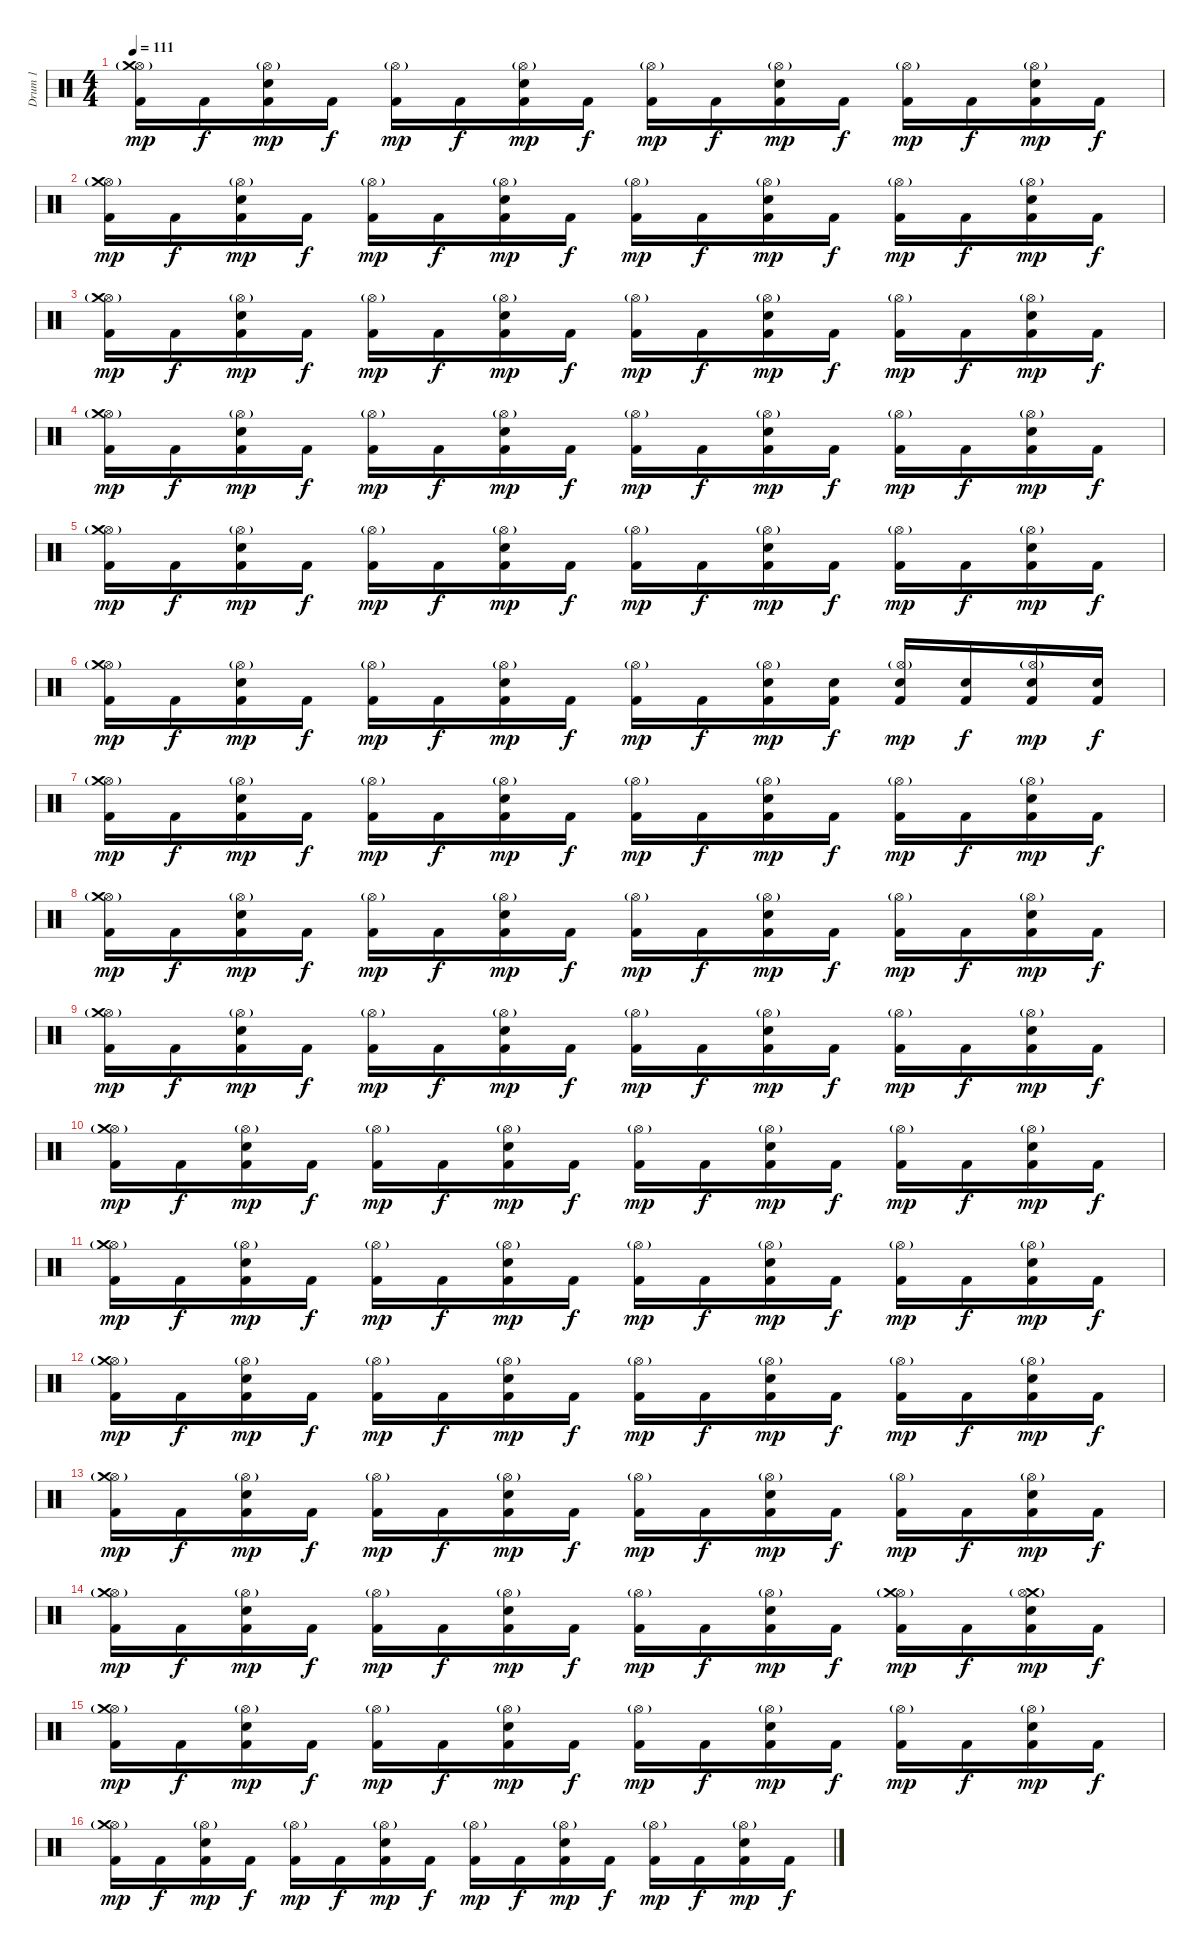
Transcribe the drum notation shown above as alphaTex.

\track ("Drum 1" "Drum 1") {instrument percussion}
\staff {score}
\articulation defaults
\ts (4 4)
\tempo 111
\clef neutral
\ks c
("Kick (hit) 2" "Hi-Hat (open)"{g} "Crash medium (hit)").16{dy mp} "Kick (hit) 2".16{dy f} ("Kick (hit) 2" "Hi-Hat (open)"{g} "Electric Snare (hit)").16{dy mp} "Kick (hit) 2".16{dy f} ("Kick (hit) 2" "Hi-Hat (open)"{g}).16{dy mp} "Kick (hit) 2".16{dy f} ("Kick (hit) 2" "Hi-Hat (open)"{g} "Electric Snare (hit)").16{dy mp} "Kick (hit) 2".16{dy f} ("Kick (hit) 2" "Hi-Hat (open)"{g}).16{dy mp} "Kick (hit) 2".16{dy f} ("Kick (hit) 2" "Hi-Hat (open)"{g} "Electric Snare (hit)").16{dy mp} "Kick (hit) 2".16{dy f} ("Kick (hit) 2" "Hi-Hat (open)"{g}).16{dy mp} "Kick (hit) 2".16{dy f} ("Kick (hit) 2" "Hi-Hat (open)"{g} "Electric Snare (hit)").16{dy mp} "Kick (hit) 2".16{dy f} |
("Kick (hit) 2" "Hi-Hat (open)"{g} "Crash medium (hit)").16{dy mp} "Kick (hit) 2".16{dy f} ("Kick (hit) 2" "Hi-Hat (open)"{g} "Electric Snare (hit)").16{dy mp} "Kick (hit) 2".16{dy f} ("Kick (hit) 2" "Hi-Hat (open)"{g}).16{dy mp} "Kick (hit) 2".16{dy f} ("Kick (hit) 2" "Hi-Hat (open)"{g} "Electric Snare (hit)").16{dy mp} "Kick (hit) 2".16{dy f} ("Kick (hit) 2" "Hi-Hat (open)"{g}).16{dy mp} "Kick (hit) 2".16{dy f} ("Kick (hit) 2" "Hi-Hat (open)"{g} "Electric Snare (hit)").16{dy mp} "Kick (hit) 2".16{dy f} ("Kick (hit) 2" "Hi-Hat (open)"{g}).16{dy mp} "Kick (hit) 2".16{dy f} ("Kick (hit) 2" "Hi-Hat (open)"{g} "Electric Snare (hit)").16{dy mp} "Kick (hit) 2".16{dy f} |
("Kick (hit) 2" "Hi-Hat (open)"{g} "Crash medium (hit)").16{dy mp} "Kick (hit) 2".16{dy f} ("Kick (hit) 2" "Hi-Hat (open)"{g} "Electric Snare (hit)").16{dy mp} "Kick (hit) 2".16{dy f} ("Kick (hit) 2" "Hi-Hat (open)"{g}).16{dy mp} "Kick (hit) 2".16{dy f} ("Kick (hit) 2" "Hi-Hat (open)"{g} "Electric Snare (hit)").16{dy mp} "Kick (hit) 2".16{dy f} ("Kick (hit) 2" "Hi-Hat (open)"{g}).16{dy mp} "Kick (hit) 2".16{dy f} ("Kick (hit) 2" "Hi-Hat (open)"{g} "Electric Snare (hit)").16{dy mp} "Kick (hit) 2".16{dy f} ("Kick (hit) 2" "Hi-Hat (open)"{g}).16{dy mp} "Kick (hit) 2".16{dy f} ("Kick (hit) 2" "Hi-Hat (open)"{g} "Electric Snare (hit)").16{dy mp} "Kick (hit) 2".16{dy f} |
("Kick (hit) 2" "Hi-Hat (open)"{g} "Crash medium (hit)").16{dy mp} "Kick (hit) 2".16{dy f} ("Kick (hit) 2" "Hi-Hat (open)"{g} "Electric Snare (hit)").16{dy mp} "Kick (hit) 2".16{dy f} ("Kick (hit) 2" "Hi-Hat (open)"{g}).16{dy mp} "Kick (hit) 2".16{dy f} ("Kick (hit) 2" "Hi-Hat (open)"{g} "Electric Snare (hit)").16{dy mp} "Kick (hit) 2".16{dy f} ("Kick (hit) 2" "Hi-Hat (open)"{g}).16{dy mp} "Kick (hit) 2".16{dy f} ("Kick (hit) 2" "Hi-Hat (open)"{g} "Electric Snare (hit)").16{dy mp} "Kick (hit) 2".16{dy f} ("Kick (hit) 2" "Hi-Hat (open)"{g}).16{dy mp} "Kick (hit) 2".16{dy f} ("Kick (hit) 2" "Hi-Hat (open)"{g} "Electric Snare (hit)").16{dy mp} "Kick (hit) 2".16{dy f} |
("Kick (hit) 2" "Hi-Hat (open)"{g} "Crash medium (hit)").16{dy mp} "Kick (hit) 2".16{dy f} ("Kick (hit) 2" "Hi-Hat (open)"{g} "Electric Snare (hit)").16{dy mp} "Kick (hit) 2".16{dy f} ("Kick (hit) 2" "Hi-Hat (open)"{g}).16{dy mp} "Kick (hit) 2".16{dy f} ("Kick (hit) 2" "Hi-Hat (open)"{g} "Electric Snare (hit)").16{dy mp} "Kick (hit) 2".16{dy f} ("Kick (hit) 2" "Hi-Hat (open)"{g}).16{dy mp} "Kick (hit) 2".16{dy f} ("Kick (hit) 2" "Hi-Hat (open)"{g} "Electric Snare (hit)").16{dy mp} "Kick (hit) 2".16{dy f} ("Kick (hit) 2" "Hi-Hat (open)"{g}).16{dy mp} "Kick (hit) 2".16{dy f} ("Kick (hit) 2" "Hi-Hat (open)"{g} "Electric Snare (hit)").16{dy mp} "Kick (hit) 2".16{dy f} |
("Kick (hit) 2" "Hi-Hat (open)"{g} "Crash medium (hit)").16{dy mp} "Kick (hit) 2".16{dy f} ("Kick (hit) 2" "Hi-Hat (open)"{g} "Electric Snare (hit)").16{dy mp} "Kick (hit) 2".16{dy f} ("Kick (hit) 2" "Hi-Hat (open)"{g}).16{dy mp} "Kick (hit) 2".16{dy f} ("Kick (hit) 2" "Hi-Hat (open)"{g} "Electric Snare (hit)").16{dy mp} "Kick (hit) 2".16{dy f} ("Kick (hit) 2" "Hi-Hat (open)"{g}).16{dy mp} "Kick (hit) 2".16{dy f} ("Kick (hit) 2" "Hi-Hat (open)"{g} "Electric Snare (hit)").16{dy mp} ("Kick (hit) 2" "Electric Snare (hit)").16{dy f} ("Kick (hit) 2" "Hi-Hat (open)"{g} "Electric Snare (hit)").16{dy mp} ("Kick (hit) 2" "Electric Snare (hit)").16{dy f} ("Kick (hit) 2" "Hi-Hat (open)"{g} "Electric Snare (hit)").16{dy mp} ("Kick (hit) 2" "Electric Snare (hit)").16{dy f} |
("Kick (hit) 2" "Hi-Hat (open)"{g} "Crash medium (hit)").16{dy mp} "Kick (hit) 2".16{dy f} ("Kick (hit) 2" "Hi-Hat (open)"{g} "Electric Snare (hit)").16{dy mp} "Kick (hit) 2".16{dy f} ("Kick (hit) 2" "Hi-Hat (open)"{g}).16{dy mp} "Kick (hit) 2".16{dy f} ("Kick (hit) 2" "Hi-Hat (open)"{g} "Electric Snare (hit)").16{dy mp} "Kick (hit) 2".16{dy f} ("Kick (hit) 2" "Hi-Hat (open)"{g}).16{dy mp} "Kick (hit) 2".16{dy f} ("Kick (hit) 2" "Hi-Hat (open)"{g} "Electric Snare (hit)").16{dy mp} "Kick (hit) 2".16{dy f} ("Kick (hit) 2" "Hi-Hat (open)"{g}).16{dy mp} "Kick (hit) 2".16{dy f} ("Kick (hit) 2" "Hi-Hat (open)"{g} "Electric Snare (hit)").16{dy mp} "Kick (hit) 2".16{dy f} |
("Kick (hit) 2" "Hi-Hat (open)"{g} "Crash medium (hit)").16{dy mp} "Kick (hit) 2".16{dy f} ("Kick (hit) 2" "Hi-Hat (open)"{g} "Electric Snare (hit)").16{dy mp} "Kick (hit) 2".16{dy f} ("Kick (hit) 2" "Hi-Hat (open)"{g}).16{dy mp} "Kick (hit) 2".16{dy f} ("Kick (hit) 2" "Hi-Hat (open)"{g} "Electric Snare (hit)").16{dy mp} "Kick (hit) 2".16{dy f} ("Kick (hit) 2" "Hi-Hat (open)"{g}).16{dy mp} "Kick (hit) 2".16{dy f} ("Kick (hit) 2" "Hi-Hat (open)"{g} "Electric Snare (hit)").16{dy mp} "Kick (hit) 2".16{dy f} ("Kick (hit) 2" "Hi-Hat (open)"{g}).16{dy mp} "Kick (hit) 2".16{dy f} ("Kick (hit) 2" "Hi-Hat (open)"{g} "Electric Snare (hit)").16{dy mp} "Kick (hit) 2".16{dy f} |
("Kick (hit) 2" "Hi-Hat (open)"{g} "Crash medium (hit)").16{dy mp} "Kick (hit) 2".16{dy f} ("Kick (hit) 2" "Hi-Hat (open)"{g} "Electric Snare (hit)").16{dy mp} "Kick (hit) 2".16{dy f} ("Kick (hit) 2" "Hi-Hat (open)"{g}).16{dy mp} "Kick (hit) 2".16{dy f} ("Kick (hit) 2" "Hi-Hat (open)"{g} "Electric Snare (hit)").16{dy mp} "Kick (hit) 2".16{dy f} ("Kick (hit) 2" "Hi-Hat (open)"{g}).16{dy mp} "Kick (hit) 2".16{dy f} ("Kick (hit) 2" "Hi-Hat (open)"{g} "Electric Snare (hit)").16{dy mp} "Kick (hit) 2".16{dy f} ("Kick (hit) 2" "Hi-Hat (open)"{g}).16{dy mp} "Kick (hit) 2".16{dy f} ("Kick (hit) 2" "Hi-Hat (open)"{g} "Electric Snare (hit)").16{dy mp} "Kick (hit) 2".16{dy f} |
("Kick (hit) 2" "Hi-Hat (open)"{g} "Crash medium (hit)").16{dy mp} "Kick (hit) 2".16{dy f} ("Kick (hit) 2" "Hi-Hat (open)"{g} "Electric Snare (hit)").16{dy mp} "Kick (hit) 2".16{dy f} ("Kick (hit) 2" "Hi-Hat (open)"{g}).16{dy mp} "Kick (hit) 2".16{dy f} ("Kick (hit) 2" "Hi-Hat (open)"{g} "Electric Snare (hit)").16{dy mp} "Kick (hit) 2".16{dy f} ("Kick (hit) 2" "Hi-Hat (open)"{g}).16{dy mp} "Kick (hit) 2".16{dy f} ("Kick (hit) 2" "Hi-Hat (open)"{g} "Electric Snare (hit)").16{dy mp} "Kick (hit) 2".16{dy f} ("Kick (hit) 2" "Hi-Hat (open)"{g}).16{dy mp} "Kick (hit) 2".16{dy f} ("Kick (hit) 2" "Hi-Hat (open)"{g} "Electric Snare (hit)").16{dy mp} "Kick (hit) 2".16{dy f} |
("Kick (hit) 2" "Hi-Hat (open)"{g} "Crash medium (hit)").16{dy mp} "Kick (hit) 2".16{dy f} ("Kick (hit) 2" "Hi-Hat (open)"{g} "Electric Snare (hit)").16{dy mp} "Kick (hit) 2".16{dy f} ("Kick (hit) 2" "Hi-Hat (open)"{g}).16{dy mp} "Kick (hit) 2".16{dy f} ("Kick (hit) 2" "Hi-Hat (open)"{g} "Electric Snare (hit)").16{dy mp} "Kick (hit) 2".16{dy f} ("Kick (hit) 2" "Hi-Hat (open)"{g}).16{dy mp} "Kick (hit) 2".16{dy f} ("Kick (hit) 2" "Hi-Hat (open)"{g} "Electric Snare (hit)").16{dy mp} "Kick (hit) 2".16{dy f} ("Kick (hit) 2" "Hi-Hat (open)"{g}).16{dy mp} "Kick (hit) 2".16{dy f} ("Kick (hit) 2" "Hi-Hat (open)"{g} "Electric Snare (hit)").16{dy mp} "Kick (hit) 2".16{dy f} |
("Kick (hit) 2" "Hi-Hat (open)"{g} "Crash medium (hit)").16{dy mp} "Kick (hit) 2".16{dy f} ("Kick (hit) 2" "Hi-Hat (open)"{g} "Electric Snare (hit)").16{dy mp} "Kick (hit) 2".16{dy f} ("Kick (hit) 2" "Hi-Hat (open)"{g}).16{dy mp} "Kick (hit) 2".16{dy f} ("Kick (hit) 2" "Hi-Hat (open)"{g} "Electric Snare (hit)").16{dy mp} "Kick (hit) 2".16{dy f} ("Kick (hit) 2" "Hi-Hat (open)"{g}).16{dy mp} "Kick (hit) 2".16{dy f} ("Kick (hit) 2" "Hi-Hat (open)"{g} "Electric Snare (hit)").16{dy mp} "Kick (hit) 2".16{dy f} ("Kick (hit) 2" "Hi-Hat (open)"{g}).16{dy mp} "Kick (hit) 2".16{dy f} ("Kick (hit) 2" "Hi-Hat (open)"{g} "Electric Snare (hit)").16{dy mp} "Kick (hit) 2".16{dy f} |
("Kick (hit) 2" "Hi-Hat (open)"{g} "Crash medium (hit)").16{dy mp} "Kick (hit) 2".16{dy f} ("Kick (hit) 2" "Hi-Hat (open)"{g} "Electric Snare (hit)").16{dy mp} "Kick (hit) 2".16{dy f} ("Kick (hit) 2" "Hi-Hat (open)"{g}).16{dy mp} "Kick (hit) 2".16{dy f} ("Kick (hit) 2" "Hi-Hat (open)"{g} "Electric Snare (hit)").16{dy mp} "Kick (hit) 2".16{dy f} ("Kick (hit) 2" "Hi-Hat (open)"{g}).16{dy mp} "Kick (hit) 2".16{dy f} ("Kick (hit) 2" "Hi-Hat (open)"{g} "Electric Snare (hit)").16{dy mp} "Kick (hit) 2".16{dy f} ("Kick (hit) 2" "Hi-Hat (open)"{g}).16{dy mp} "Kick (hit) 2".16{dy f} ("Kick (hit) 2" "Hi-Hat (open)"{g} "Electric Snare (hit)").16{dy mp} "Kick (hit) 2".16{dy f} |
("Kick (hit) 2" "Hi-Hat (open)"{g} "Crash medium (hit)").16{dy mp} "Kick (hit) 2".16{dy f} ("Kick (hit) 2" "Hi-Hat (open)"{g} "Electric Snare (hit)").16{dy mp} "Kick (hit) 2".16{dy f} ("Kick (hit) 2" "Hi-Hat (open)"{g}).16{dy mp} "Kick (hit) 2".16{dy f} ("Kick (hit) 2" "Hi-Hat (open)"{g} "Electric Snare (hit)").16{dy mp} "Kick (hit) 2".16{dy f} ("Kick (hit) 2" "Hi-Hat (open)"{g}).16{dy mp} "Kick (hit) 2".16{dy f} ("Kick (hit) 2" "Hi-Hat (open)"{g} "Electric Snare (hit)").16{dy mp} "Kick (hit) 2".16{dy f} ("Kick (hit) 2" "Hi-Hat (open)"{g} "Crash medium (hit)").16{dy mp} "Kick (hit) 2".16{dy f} ("Kick (hit) 2" "Crash medium (hit)" "Hi-Hat (open)"{g} "Electric Snare (hit)").16{dy mp} "Kick (hit) 2".16{dy f} |
("Kick (hit) 2" "Hi-Hat (open)"{g} "Crash medium (hit)").16{dy mp} "Kick (hit) 2".16{dy f} ("Kick (hit) 2" "Hi-Hat (open)"{g} "Electric Snare (hit)").16{dy mp} "Kick (hit) 2".16{dy f} ("Kick (hit) 2" "Hi-Hat (open)"{g}).16{dy mp} "Kick (hit) 2".16{dy f} ("Kick (hit) 2" "Hi-Hat (open)"{g} "Electric Snare (hit)").16{dy mp} "Kick (hit) 2".16{dy f} ("Kick (hit) 2" "Hi-Hat (open)"{g}).16{dy mp} "Kick (hit) 2".16{dy f} ("Kick (hit) 2" "Hi-Hat (open)"{g} "Electric Snare (hit)").16{dy mp} "Kick (hit) 2".16{dy f} ("Kick (hit) 2" "Hi-Hat (open)"{g}).16{dy mp} "Kick (hit) 2".16{dy f} ("Kick (hit) 2" "Hi-Hat (open)"{g} "Electric Snare (hit)").16{dy mp} "Kick (hit) 2".16{dy f} |
("Kick (hit) 2" "Hi-Hat (open)"{g} "Crash medium (hit)").16{dy mp} "Kick (hit) 2".16{dy f} ("Kick (hit) 2" "Hi-Hat (open)"{g} "Electric Snare (hit)").16{dy mp} "Kick (hit) 2".16{dy f} ("Kick (hit) 2" "Hi-Hat (open)"{g}).16{dy mp} "Kick (hit) 2".16{dy f} ("Kick (hit) 2" "Hi-Hat (open)"{g} "Electric Snare (hit)").16{dy mp} "Kick (hit) 2".16{dy f} ("Kick (hit) 2" "Hi-Hat (open)"{g}).16{dy mp} "Kick (hit) 2".16{dy f} ("Kick (hit) 2" "Hi-Hat (open)"{g} "Electric Snare (hit)").16{dy mp} "Kick (hit) 2".16{dy f} ("Kick (hit) 2" "Hi-Hat (open)"{g}).16{dy mp} "Kick (hit) 2".16{dy f} ("Kick (hit) 2" "Hi-Hat (open)"{g} "Electric Snare (hit)").16{dy mp} "Kick (hit) 2".16{dy f}
